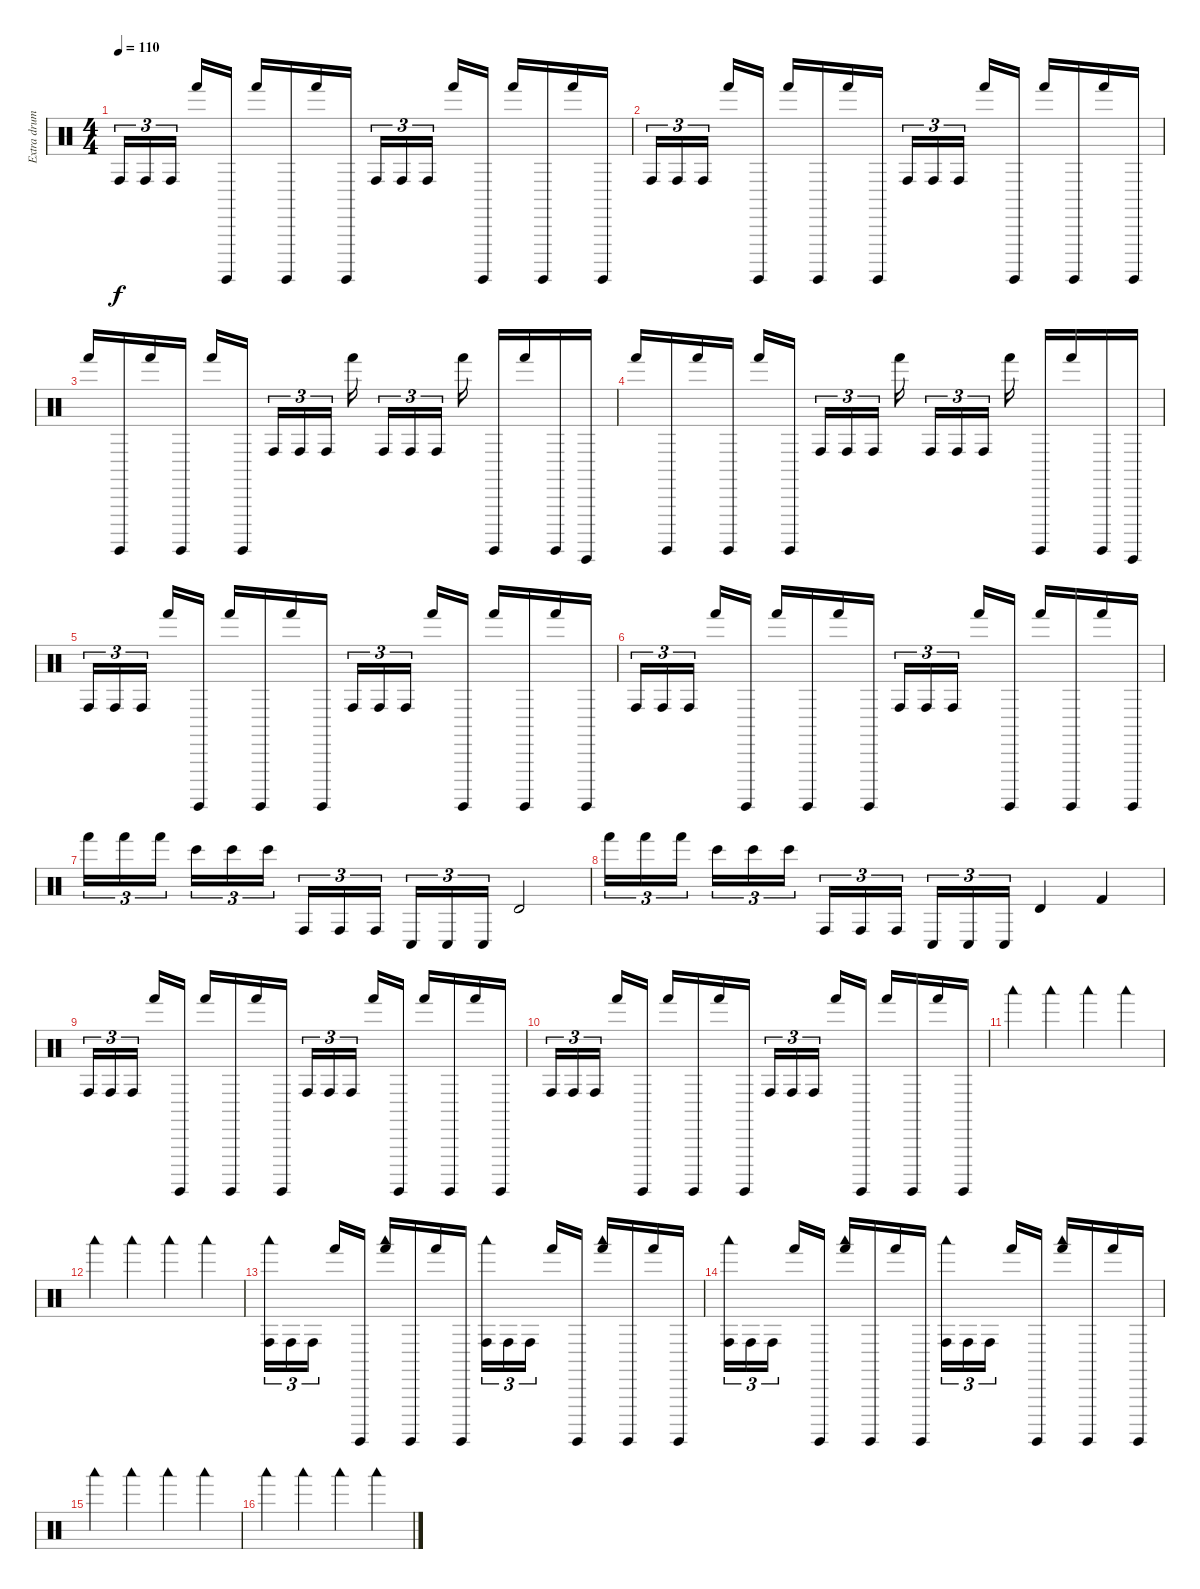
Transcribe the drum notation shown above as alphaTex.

\track ("Extra drums" "Extra drum") {instrument percussion}
\staff {score}
\articulation defaults
\ts (4 4)
\tempo 110
\clef neutral
\ks c "Conga high (hit)".16{tu (3 2) dy f} "Conga high (hit)".16{tu (3 2)} "Conga high (hit)".16{tu (3 2) beam splitsecondary} "Hand (hit)".16 "Surdo (hit)".16 "Hand (hit)".16 "Surdo (hit)".16 "Hand (hit)".16 "Surdo (hit)".16 "Conga high (hit)".16{tu (3 2)} "Conga high (hit)".16{tu (3 2)} "Conga high (hit)".16{tu (3 2) beam splitsecondary} "Hand (hit)".16 "Surdo (hit)".16 "Hand (hit)".16 "Surdo (hit)".16 "Hand (hit)".16 "Surdo (hit)".16
|
"Conga high (hit)".16{tu (3 2)} "Conga high (hit)".16{tu (3 2)} "Conga high (hit)".16{tu (3 2) beam splitsecondary} "Hand (hit)".16 "Surdo (hit)".16 "Hand (hit)".16 "Surdo (hit)".16 "Hand (hit)".16 "Surdo (hit)".16 "Conga high (hit)".16{tu (3 2)} "Conga high (hit)".16{tu (3 2)} "Conga high (hit)".16{tu (3 2) beam splitsecondary} "Hand (hit)".16 "Surdo (hit)".16 "Hand (hit)".16 "Surdo (hit)".16 "Hand (hit)".16 "Surdo (hit)".16 |
"Hand (hit)".16 "Surdo (hit)".16 "Hand (hit)".16 "Surdo (hit)".16 "Hand (hit)".16 "Surdo (hit)".16{beam splitsecondary} "Conga high (hit)".16{tu (3 2)} "Conga high (hit)".16{tu (3 2)} "Conga high (hit)".16{tu (3 2)} "Hand (hit)".16{beam splitsecondary} "Conga high (hit)".16{tu (3 2)} "Conga high (hit)".16{tu (3 2)} "Conga high (hit)".16{tu (3 2) beam splitsecondary} "Hand (hit)".16 "Surdo (hit)".16 "Hand (hit)".16 "Surdo (hit)".16 "Guiro (hit)".16 |
"Hand (hit)".16 "Surdo (hit)".16 "Hand (hit)".16 "Surdo (hit)".16 "Hand (hit)".16 "Surdo (hit)".16{beam splitsecondary} "Conga high (hit)".16{tu (3 2)} "Conga high (hit)".16{tu (3 2)} "Conga high (hit)".16{tu (3 2)} "Hand (hit)".16{beam splitsecondary} "Conga high (hit)".16{tu (3 2)} "Conga high (hit)".16{tu (3 2)} "Conga high (hit)".16{tu (3 2) beam splitsecondary} "Hand (hit)".16 "Surdo (hit)".16 "Hand (hit)".16 "Surdo (hit)".16 "Guiro (hit)".16 |
"Conga high (hit)".16{tu (3 2)} "Conga high (hit)".16{tu (3 2)} "Conga high (hit)".16{tu (3 2) beam splitsecondary} "Hand (hit)".16 "Surdo (hit)".16 "Hand (hit)".16 "Surdo (hit)".16 "Hand (hit)".16 "Surdo (hit)".16 "Conga high (hit)".16{tu (3 2)} "Conga high (hit)".16{tu (3 2)} "Conga high (hit)".16{tu (3 2) beam splitsecondary} "Hand (hit)".16 "Surdo (hit)".16 "Hand (hit)".16 "Surdo (hit)".16 "Hand (hit)".16 "Surdo (hit)".16 |
"Conga high (hit)".16{tu (3 2)} "Conga high (hit)".16{tu (3 2)} "Conga high (hit)".16{tu (3 2) beam splitsecondary} "Hand (hit)".16 "Surdo (hit)".16 "Hand (hit)".16 "Surdo (hit)".16 "Hand (hit)".16 "Surdo (hit)".16 "Conga high (hit)".16{tu (3 2)} "Conga high (hit)".16{tu (3 2)} "Conga high (hit)".16{tu (3 2) beam splitsecondary} "Hand (hit)".16 "Surdo (hit)".16 "Hand (hit)".16 "Surdo (hit)".16 "Hand (hit)".16 "Surdo (hit)".16 |
"Hand (hit)".16{tu (3 2)} "Hand (hit)".16{tu (3 2)} "Hand (hit)".16{tu (3 2) beam splitsecondary} "Bongo High (hit)".16{tu (3 2)} "Bongo High (hit)".16{tu (3 2)} "Bongo High (hit)".16{tu (3 2)} "Conga high (hit)".16{tu (3 2)} "Conga high (hit)".16{tu (3 2)} "Conga high (hit)".16{tu (3 2) beam splitsecondary} "Conga low (hit)".16{tu (3 2)} "Conga low (hit)".16{tu (3 2)} "Conga low (hit)".16{tu (3 2)} "Timbale high (hit)".2 |
"Hand (hit)".16{tu (3 2)} "Hand (hit)".16{tu (3 2)} "Hand (hit)".16{tu (3 2) beam splitsecondary} "Bongo High (hit)".16{tu (3 2)} "Bongo High (hit)".16{tu (3 2)} "Bongo High (hit)".16{tu (3 2)} "Conga high (hit)".16{tu (3 2)} "Conga high (hit)".16{tu (3 2)} "Conga high (hit)".16{tu (3 2) beam splitsecondary} "Conga low (hit)".16{tu (3 2)} "Conga low (hit)".16{tu (3 2)} "Conga low (hit)".16{tu (3 2)} "Timbale high (hit)".4 "Kick (hit) 2".4 |
"Conga high (hit)".16{tu (3 2)} "Conga high (hit)".16{tu (3 2)} "Conga high (hit)".16{tu (3 2) beam splitsecondary} "Hand (hit)".16 "Surdo (hit)".16 "Hand (hit)".16 "Surdo (hit)".16 "Hand (hit)".16 "Surdo (hit)".16 "Conga high (hit)".16{tu (3 2)} "Conga high (hit)".16{tu (3 2)} "Conga high (hit)".16{tu (3 2) beam splitsecondary} "Hand (hit)".16 "Surdo (hit)".16 "Hand (hit)".16 "Surdo (hit)".16 "Hand (hit)".16 "Surdo (hit)".16 |
"Conga high (hit)".16{tu (3 2)} "Conga high (hit)".16{tu (3 2)} "Conga high (hit)".16{tu (3 2) beam splitsecondary} "Hand (hit)".16 "Surdo (hit)".16 "Hand (hit)".16 "Surdo (hit)".16 "Hand (hit)".16 "Surdo (hit)".16 "Conga high (hit)".16{tu (3 2)} "Conga high (hit)".16{tu (3 2)} "Conga high (hit)".16{tu (3 2) beam splitsecondary} "Hand (hit)".16 "Surdo (hit)".16 "Hand (hit)".16 "Surdo (hit)".16 "Hand (hit)".16 "Surdo (hit)".16 |
"Woodblock low (hit)".4 "Woodblock low (hit)".4 "Woodblock low (hit)".4 "Woodblock low (hit)".4 |
"Woodblock low (hit)".4 "Woodblock low (hit)".4 "Woodblock low (hit)".4 "Woodblock low (hit)".4 |
("Conga high (hit)" "Woodblock low (hit)").16{tu (3 2)} "Conga high (hit)".16{tu (3 2)} "Conga high (hit)".16{tu (3 2) beam splitsecondary} "Hand (hit)".16 "Surdo (hit)".16 ("Hand (hit)" "Woodblock low (hit)").16 "Surdo (hit)".16 "Hand (hit)".16 "Surdo (hit)".16 ("Conga high (hit)" "Woodblock low (hit)").16{tu (3 2)} "Conga high (hit)".16{tu (3 2)} "Conga high (hit)".16{tu (3 2) beam splitsecondary} "Hand (hit)".16 "Surdo (hit)".16 ("Hand (hit)" "Woodblock low (hit)").16 "Surdo (hit)".16 "Hand (hit)".16 "Surdo (hit)".16 |
("Conga high (hit)" "Woodblock low (hit)").16{tu (3 2)} "Conga high (hit)".16{tu (3 2)} "Conga high (hit)".16{tu (3 2) beam splitsecondary} "Hand (hit)".16 "Surdo (hit)".16 ("Hand (hit)" "Woodblock low (hit)").16 "Surdo (hit)".16 "Hand (hit)".16 "Surdo (hit)".16 ("Conga high (hit)" "Woodblock low (hit)").16{tu (3 2)} "Conga high (hit)".16{tu (3 2)} "Conga high (hit)".16{tu (3 2) beam splitsecondary} "Hand (hit)".16 "Surdo (hit)".16 ("Hand (hit)" "Woodblock low (hit)").16 "Surdo (hit)".16 "Hand (hit)".16 "Surdo (hit)".16 |
"Woodblock low (hit)".4 "Woodblock low (hit)".4 "Woodblock low (hit)".4 "Woodblock low (hit)".4 |
"Woodblock low (hit)".4 "Woodblock low (hit)".4 "Woodblock low (hit)".4 "Woodblock low (hit)".4
